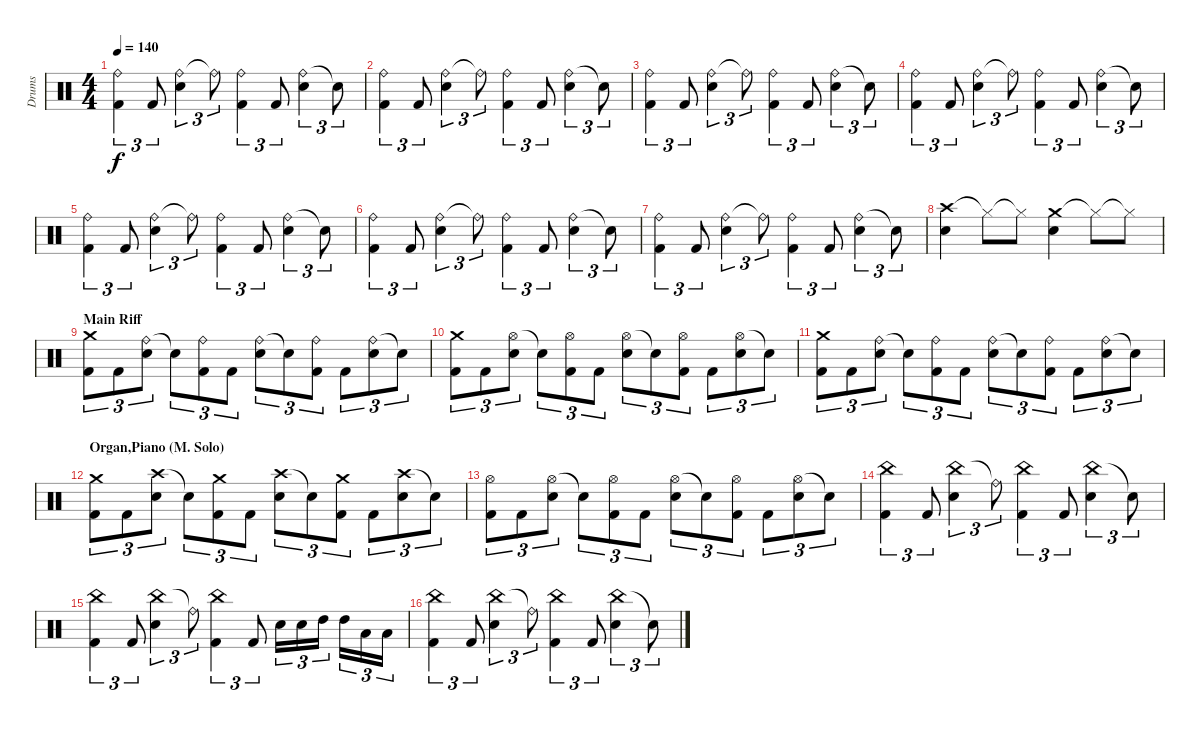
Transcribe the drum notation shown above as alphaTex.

\track ("Drums" "Drums") {instrument percussion}
\staff {score}
\articulation defaults
\ts (4 4)
\tempo 140
\clef neutral
\ks c
("Ride (bell)" "Kick (hit) 2").4{tu (3 2) dy f} "Kick (hit) 2".8{tu (3 2)} ("Ride (bell)" "Electric Snare (hit)").4{tu (3 2)} "Ride (bell)"{t}.8{tu (3 2)} ("Ride (bell)" "Kick (hit) 2").4{tu (3 2)} "Kick (hit) 2".8{tu (3 2)} ("Ride (bell)" "Electric Snare (hit)").4{tu (3 2)} "Snare (hit)"{t}.8{tu (3 2)} |
("Ride (bell)" "Kick (hit) 2").4{tu (3 2)} "Kick (hit) 2".8{tu (3 2)} ("Ride (bell)" "Electric Snare (hit)").4{tu (3 2)} "Ride (bell)"{t}.8{tu (3 2)} ("Ride (bell)" "Kick (hit) 2").4{tu (3 2)} "Kick (hit) 2".8{tu (3 2)} ("Ride (bell)" "Electric Snare (hit)").4{tu (3 2)} "Snare (hit)"{t}.8{tu (3 2)} |
("Ride (bell)" "Kick (hit) 2").4{tu (3 2)} "Kick (hit) 2".8{tu (3 2)} ("Ride (bell)" "Electric Snare (hit)").4{tu (3 2)} "Ride (bell)"{t}.8{tu (3 2)} ("Ride (bell)" "Kick (hit) 2").4{tu (3 2)} "Kick (hit) 2".8{tu (3 2)} ("Ride (bell)" "Electric Snare (hit)").4{tu (3 2)} "Snare (hit)"{t}.8{tu (3 2)} |
("Ride (bell)" "Kick (hit) 2").4{tu (3 2)} "Kick (hit) 2".8{tu (3 2)} ("Ride (bell)" "Electric Snare (hit)").4{tu (3 2)} "Ride (bell)"{t}.8{tu (3 2)} ("Ride (bell)" "Kick (hit) 2").4{tu (3 2)} "Kick (hit) 2".8{tu (3 2)} ("Ride (bell)" "Electric Snare (hit)").4{tu (3 2)} "Snare (hit)"{t}.8{tu (3 2)} |
("Ride (bell)" "Kick (hit) 2").4{tu (3 2)} "Kick (hit) 2".8{tu (3 2)} ("Ride (bell)" "Electric Snare (hit)").4{tu (3 2)} "Ride (bell)"{t}.8{tu (3 2)} ("Ride (bell)" "Kick (hit) 2").4{tu (3 2)} "Kick (hit) 2".8{tu (3 2)} ("Ride (bell)" "Electric Snare (hit)").4{tu (3 2)} "Snare (hit)"{t}.8{tu (3 2)} |
("Ride (bell)" "Kick (hit) 2").4{tu (3 2)} "Kick (hit) 2".8{tu (3 2)} ("Ride (bell)" "Electric Snare (hit)").4{tu (3 2)} "Ride (bell)"{t}.8{tu (3 2)} ("Ride (bell)" "Kick (hit) 2").4{tu (3 2)} "Kick (hit) 2".8{tu (3 2)} ("Ride (bell)" "Electric Snare (hit)").4{tu (3 2)} "Snare (hit)"{t}.8{tu (3 2)} |
("Ride (bell)" "Kick (hit) 2").4{tu (3 2)} "Kick (hit) 2".8{tu (3 2)} ("Ride (bell)" "Electric Snare (hit)").4{tu (3 2)} "Ride (bell)"{t}.8{tu (3 2)} ("Ride (bell)" "Kick (hit) 2").4{tu (3 2)} "Kick (hit) 2".8{tu (3 2)} ("Ride (bell)" "Electric Snare (hit)").4{tu (3 2)} "Snare (hit)"{t}.8{tu (3 2)} |
("Crash high (hit)" "Electric Snare (hit)").4 "Hi-Hat (closed)"{t}.8 "Hi-Hat (closed)"{t}.8 ("Crash medium (hit)" "Electric Snare (hit)").4 "Hi-Hat (closed)"{t}.8 "Hi-Hat (closed)"{t}.8 |
\section ("" "Main Riff")
("Crash medium (hit)" "Kick (hit) 2").8{tu (3 2)} "Kick (hit) 2".8{tu (3 2)} ("Ride (bell)" "Electric Snare (hit)").8{tu (3 2)} "Snare (hit)"{t}.8{tu (3 2)} ("Ride (bell)" "Kick (hit) 2").8{tu (3 2)} "Kick (hit) 2".8{tu (3 2)} ("Ride (bell)" "Electric Snare (hit)").8{tu (3 2)} "Snare (hit)"{t}.8{tu (3 2)} ("Ride (bell)" "Kick (hit) 2").8{tu (3 2)} "Kick (hit) 2".8{tu (3 2)} ("Ride (bell)" "Electric Snare (hit)").8{tu (3 2)} "Snare (hit)"{t}.8{tu (3 2)} |
("Crash medium (hit)" "Kick (hit) 2").8{tu (3 2)} "Kick (hit) 2".8{tu (3 2)} ("Hi-Hat (open)" "Electric Snare (hit)").8{tu (3 2)} "Snare (hit)"{t}.8{tu (3 2)} ("Hi-Hat (open)" "Kick (hit) 2").8{tu (3 2)} "Kick (hit) 2".8{tu (3 2)} ("Hi-Hat (open)" "Electric Snare (hit)").8{tu (3 2)} "Snare (hit)"{t}.8{tu (3 2)} ("Hi-Hat (open)" "Kick (hit) 2").8{tu (3 2)} "Kick (hit) 2".8{tu (3 2)} ("Hi-Hat (open)" "Electric Snare (hit)").8{tu (3 2)} "Snare (hit)"{t}.8{tu (3 2)} |
("Crash medium (hit)" "Kick (hit) 2").8{tu (3 2)} "Kick (hit) 2".8{tu (3 2)} ("Ride (bell)" "Electric Snare (hit)").8{tu (3 2)} "Snare (hit)"{t}.8{tu (3 2)} ("Ride (bell)" "Kick (hit) 2").8{tu (3 2)} "Kick (hit) 2".8{tu (3 2)} ("Ride (bell)" "Electric Snare (hit)").8{tu (3 2)} "Snare (hit)"{t}.8{tu (3 2)} ("Ride (bell)" "Kick (hit) 2").8{tu (3 2)} "Kick (hit) 2".8{tu (3 2)} ("Ride (bell)" "Electric Snare (hit)").8{tu (3 2)} "Snare (hit)"{t}.8{tu (3 2)} |
\section ("" "Organ,Piano (M. Solo)")
("Crash medium (hit)" "Kick (hit) 2").8{tu (3 2)} "Kick (hit) 2".8{tu (3 2)} ("Crash high (hit)" "Electric Snare (hit)").8{tu (3 2)} "Snare (hit)"{t}.8{tu (3 2)} ("Crash medium (hit)" "Kick (hit) 2").8{tu (3 2)} "Kick (hit) 2".8{tu (3 2)} ("Crash high (hit)" "Electric Snare (hit)").8{tu (3 2)} "Snare (hit)"{t}.8{tu (3 2)} ("Crash medium (hit)" "Kick (hit) 2").8{tu (3 2)} "Kick (hit) 2".8{tu (3 2)} ("Crash high (hit)" "Electric Snare (hit)").8{tu (3 2)} "Snare (hit)"{t}.8{tu (3 2)} |
("Hi-Hat (open)" "Kick (hit) 2").8{tu (3 2)} "Kick (hit) 2".8{tu (3 2)} ("Hi-Hat (open)" "Electric Snare (hit)").8{tu (3 2)} "Snare (hit)"{t}.8{tu (3 2)} ("Hi-Hat (open)" "Kick (hit) 2").8{tu (3 2)} "Kick (hit) 2".8{tu (3 2)} ("Hi-Hat (open)" "Electric Snare (hit)").8{tu (3 2)} "Snare (hit)"{t}.8{tu (3 2)} ("Hi-Hat (open)" "Kick (hit) 2").8{tu (3 2)} "Kick (hit) 2".8{tu (3 2)} ("Hi-Hat (open)" "Electric Snare (hit)").8{tu (3 2)} "Snare (hit)"{t}.8{tu (3 2)} |
("China (hit)" "Kick (hit) 2").4{tu (3 2)} "Kick (hit) 2".8{tu (3 2)} ("China (hit)" "Electric Snare (hit)").4{tu (3 2)} "Ride (bell)"{t}.8{tu (3 2)} ("China (hit)" "Kick (hit) 2").4{tu (3 2)} "Kick (hit) 2".8{tu (3 2)} ("China (hit)" "Electric Snare (hit)").4{tu (3 2)} "Snare (hit)"{t}.8{tu (3 2)} |
("China (hit)" "Kick (hit) 2").4{tu (3 2)} "Kick (hit) 2".8{tu (3 2)} ("China (hit)" "Electric Snare (hit)").4{tu (3 2)} "Ride (bell)"{t}.8{tu (3 2)} ("China (hit)" "Kick (hit) 2").4{tu (3 2)} "Kick (hit) 2".8{tu (3 2)} "Electric Snare (hit)".16{tu (3 2)} "Electric Snare (hit)".16{tu (3 2)} "High Tom (hit)".16{tu (3 2)} "High Tom (hit)".16{tu (3 2)} "Low Tom (hit)".16{tu (3 2)} "Low Tom (hit)".16{tu (3 2)} |
("China (hit)" "Kick (hit) 2").4{tu (3 2)} "Kick (hit) 2".8{tu (3 2)} ("China (hit)" "Electric Snare (hit)").4{tu (3 2)} "Ride (bell)"{t}.8{tu (3 2)} ("China (hit)" "Kick (hit) 2").4{tu (3 2)} "Kick (hit) 2".8{tu (3 2)} ("China (hit)" "Electric Snare (hit)").4{tu (3 2)} "Snare (hit)"{t}.8{tu (3 2)}
